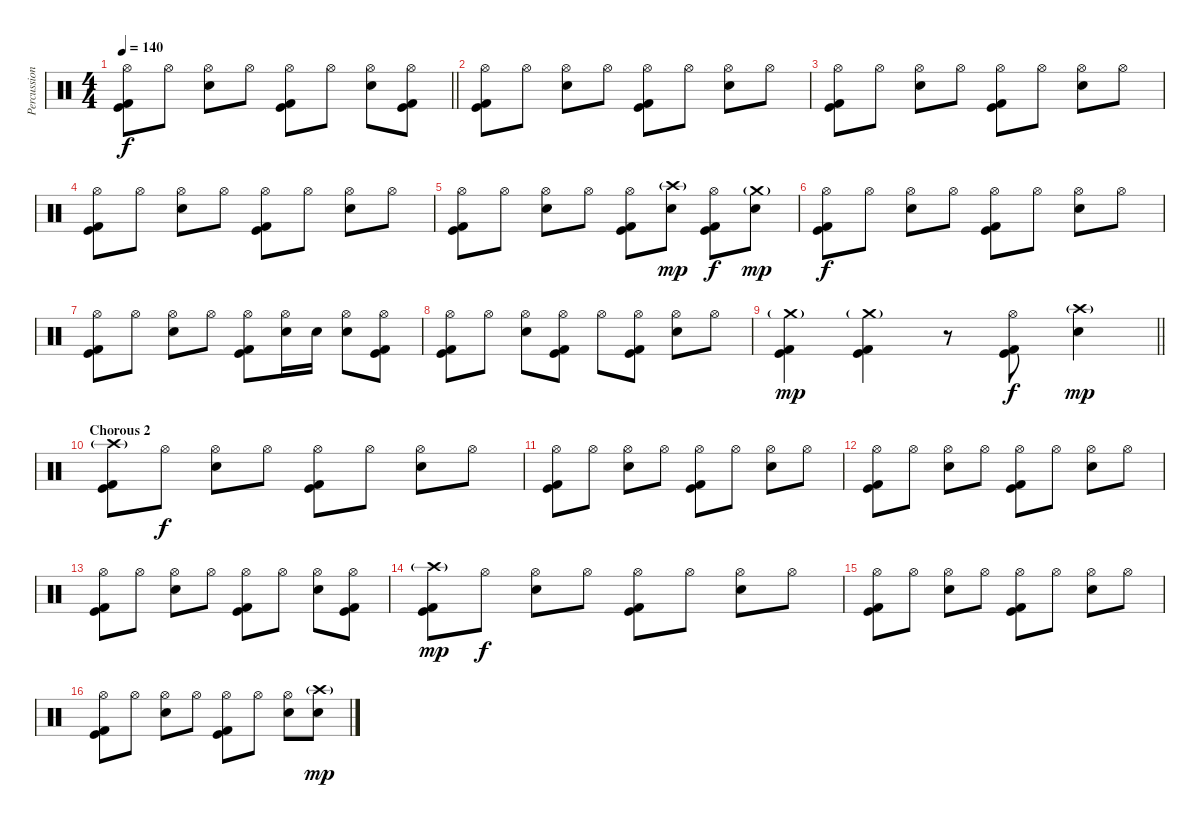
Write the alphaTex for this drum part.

\track ("Percussion" "Percussion") {instrument percussion}
\staff {score}
\articulation defaults
\ts (4 4)
\tempo 140
\clef neutral
\barLineRight lightlight
\ks c
("Hi-Hat (open)" "Kick (hit)" "Kick (hit) 2").8{dy f} "Hi-Hat (open)".8 ("Hi-Hat (open)" "Electric Snare (hit)").8 "Hi-Hat (open)".8 ("Hi-Hat (open)" "Kick (hit)" "Kick (hit) 2").8 "Hi-Hat (open)".8 ("Hi-Hat (open)" "Electric Snare (hit)").8 ("Hi-Hat (open)" "Kick (hit)" "Kick (hit) 2").8 |
\section ("" "")
("Hi-Hat (open)" "Kick (hit)" "Kick (hit) 2").8 "Hi-Hat (open)".8 ("Hi-Hat (open)" "Electric Snare (hit)").8 "Hi-Hat (open)".8 ("Hi-Hat (open)" "Kick (hit)" "Kick (hit) 2").8 "Hi-Hat (open)".8 ("Hi-Hat (open)" "Electric Snare (hit)").8 "Hi-Hat (open)".8 |
("Hi-Hat (open)" "Kick (hit)" "Kick (hit) 2").8 "Hi-Hat (open)".8 ("Hi-Hat (open)" "Electric Snare (hit)").8 "Hi-Hat (open)".8 ("Hi-Hat (open)" "Kick (hit)" "Kick (hit) 2").8 "Hi-Hat (open)".8 ("Hi-Hat (open)" "Electric Snare (hit)").8 "Hi-Hat (open)".8 |
("Hi-Hat (open)" "Kick (hit)" "Kick (hit) 2").8 "Hi-Hat (open)".8 ("Hi-Hat (open)" "Electric Snare (hit)").8 "Hi-Hat (open)".8 ("Hi-Hat (open)" "Kick (hit)" "Kick (hit) 2").8 "Hi-Hat (open)".8 ("Hi-Hat (open)" "Electric Snare (hit)").8 "Hi-Hat (open)".8 |
("Hi-Hat (open)" "Kick (hit)" "Kick (hit) 2").8 "Hi-Hat (open)".8 ("Hi-Hat (open)" "Electric Snare (hit)").8 "Hi-Hat (open)".8 ("Hi-Hat (open)" "Kick (hit)" "Kick (hit) 2").8 ("Crash high (hit)"{g} "Electric Snare (hit)").8{dy mp} ("Hi-Hat (open)" "Kick (hit)" "Kick (hit) 2").8{dy f} ("Crash medium (hit)"{g} "Electric Snare (hit)").8{dy mp} |
("Hi-Hat (open)" "Kick (hit)" "Kick (hit) 2").8{dy f} "Hi-Hat (open)".8 ("Hi-Hat (open)" "Electric Snare (hit)").8 "Hi-Hat (open)".8 ("Hi-Hat (open)" "Kick (hit)" "Kick (hit) 2").8 "Hi-Hat (open)".8 ("Hi-Hat (open)" "Electric Snare (hit)").8 "Hi-Hat (open)".8 |
("Hi-Hat (open)" "Kick (hit)" "Kick (hit) 2").8 "Hi-Hat (open)".8 ("Hi-Hat (open)" "Electric Snare (hit)").8 "Hi-Hat (open)".8 ("Hi-Hat (open)" "Kick (hit)" "Kick (hit) 2").8 ("Hi-Hat (open)" "Electric Snare (hit)").16 "Electric Snare (hit)".16 ("Hi-Hat (open)" "Electric Snare (hit)").8 ("Hi-Hat (open)" "Kick (hit)" "Kick (hit) 2").8 |
("Hi-Hat (open)" "Kick (hit)" "Kick (hit) 2").8 "Hi-Hat (open)".8 ("Hi-Hat (open)" "Electric Snare (hit)").8 ("Hi-Hat (open)" "Kick (hit)" "Kick (hit) 2").8 "Hi-Hat (open)".8 ("Hi-Hat (open)" "Kick (hit)" "Kick (hit) 2").8 ("Hi-Hat (open)" "Electric Snare (hit)").8 "Hi-Hat (open)".8 |
\barLineRight lightlight
("Crash medium (hit)"{g} "Kick (hit)" "Kick (hit) 2").4{dy mp} ("Crash medium (hit)"{g} "Kick (hit)" "Kick (hit) 2").4 r.8 ("Hi-Hat (open)" "Kick (hit)" "Kick (hit) 2").8{dy f} ("Crash high (hit)"{g} "Electric Snare (hit)").4{dy mp} |
\section ("" "Chorous 2")
("Crash high (hit)"{g} "Kick (hit)" "Kick (hit) 2").8 "Hi-Hat (open)".8{dy f} ("Hi-Hat (open)" "Electric Snare (hit)").8 "Hi-Hat (open)".8 ("Hi-Hat (open)" "Kick (hit)" "Kick (hit) 2").8 "Hi-Hat (open)".8 ("Hi-Hat (open)" "Electric Snare (hit)").8 "Hi-Hat (open)".8 |
("Hi-Hat (open)" "Kick (hit)" "Kick (hit) 2").8 "Hi-Hat (open)".8 ("Hi-Hat (open)" "Electric Snare (hit)").8 "Hi-Hat (open)".8 ("Hi-Hat (open)" "Kick (hit)" "Kick (hit) 2").8 "Hi-Hat (open)".8 ("Hi-Hat (open)" "Electric Snare (hit)").8 "Hi-Hat (open)".8 |
("Hi-Hat (open)" "Kick (hit)" "Kick (hit) 2").8 "Hi-Hat (open)".8 ("Hi-Hat (open)" "Electric Snare (hit)").8 "Hi-Hat (open)".8 ("Hi-Hat (open)" "Kick (hit)" "Kick (hit) 2").8 "Hi-Hat (open)".8 ("Hi-Hat (open)" "Electric Snare (hit)").8 "Hi-Hat (open)".8 |
("Hi-Hat (open)" "Kick (hit)" "Kick (hit) 2").8 "Hi-Hat (open)".8 ("Hi-Hat (open)" "Electric Snare (hit)").8 "Hi-Hat (open)".8 ("Hi-Hat (open)" "Kick (hit)" "Kick (hit) 2").8 "Hi-Hat (open)".8 ("Hi-Hat (open)" "Electric Snare (hit)").8 ("Hi-Hat (open)" "Kick (hit)" "Kick (hit) 2").8 |
("Crash high (hit)"{g} "Kick (hit)" "Kick (hit) 2").8{dy mp} "Hi-Hat (open)".8{dy f} ("Hi-Hat (open)" "Electric Snare (hit)").8 "Hi-Hat (open)".8 ("Hi-Hat (open)" "Kick (hit)" "Kick (hit) 2").8 "Hi-Hat (open)".8 ("Hi-Hat (open)" "Electric Snare (hit)").8 "Hi-Hat (open)".8 |
("Hi-Hat (open)" "Kick (hit)" "Kick (hit) 2").8 "Hi-Hat (open)".8 ("Hi-Hat (open)" "Electric Snare (hit)").8 "Hi-Hat (open)".8 ("Hi-Hat (open)" "Kick (hit)" "Kick (hit) 2").8 "Hi-Hat (open)".8 ("Hi-Hat (open)" "Electric Snare (hit)").8 "Hi-Hat (open)".8 |
("Hi-Hat (open)" "Kick (hit)" "Kick (hit) 2").8 "Hi-Hat (open)".8 ("Hi-Hat (open)" "Electric Snare (hit)").8 "Hi-Hat (open)".8 ("Hi-Hat (open)" "Kick (hit)" "Kick (hit) 2").8 "Hi-Hat (open)".8 ("Hi-Hat (open)" "Electric Snare (hit)").8 ("Crash high (hit)"{g} "Electric Snare (hit)").8{dy mp}
